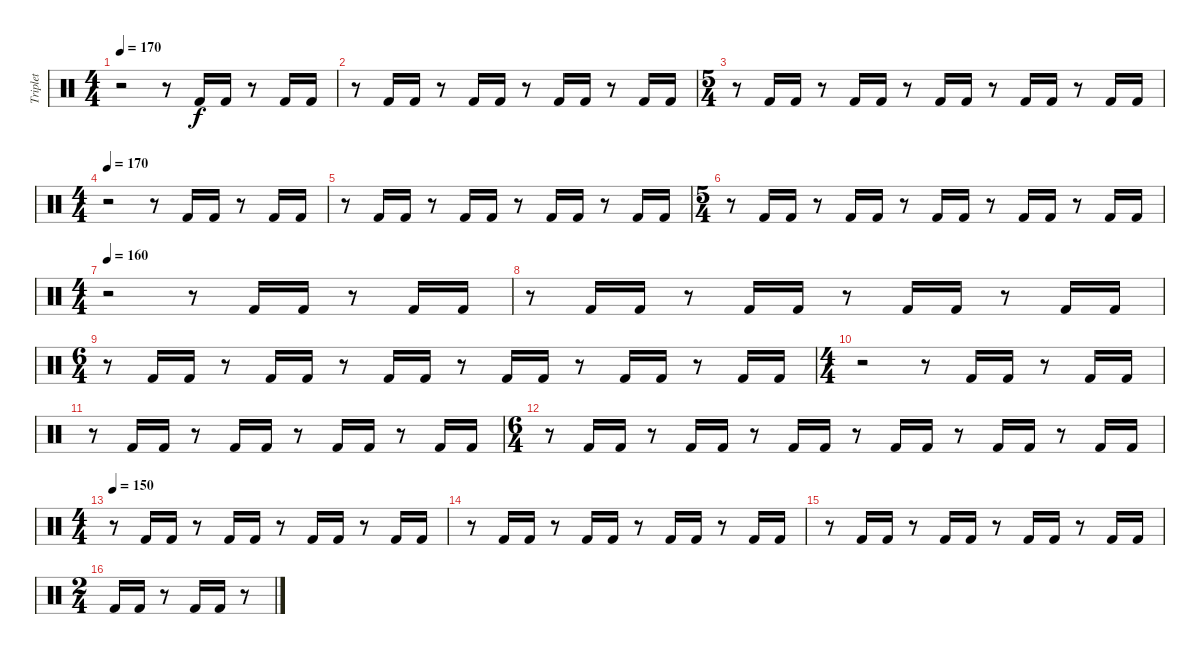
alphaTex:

\track ("Triplet" "Triplet") {instrument percussion}
\staff {score}
\articulation defaults
\ts (4 4)
\tempo 170
\clef neutral
\ks c
r.2{dy f} r.8 "Kick (hit) 2".16 "Kick (hit) 2".16 r.8 "Kick (hit) 2".16 "Kick (hit) 2".16 |
r.8 "Kick (hit) 2".16 "Kick (hit) 2".16 r.8 "Kick (hit) 2".16 "Kick (hit) 2".16 r.8 "Kick (hit) 2".16 "Kick (hit) 2".16 r.8 "Kick (hit) 2".16 "Kick (hit) 2".16 |
\ts (5 4)
r.8 "Kick (hit) 2".16 "Kick (hit) 2".16 r.8 "Kick (hit) 2".16 "Kick (hit) 2".16 r.8 "Kick (hit) 2".16 "Kick (hit) 2".16 r.8 "Kick (hit) 2".16 "Kick (hit) 2".16 r.8 "Kick (hit) 2".16 "Kick (hit) 2".16 |
\ts (4 4)
\tempo 170
r.2 r.8 "Kick (hit) 2".16 "Kick (hit) 2".16 r.8 "Kick (hit) 2".16 "Kick (hit) 2".16 |
r.8 "Kick (hit) 2".16 "Kick (hit) 2".16 r.8 "Kick (hit) 2".16 "Kick (hit) 2".16 r.8 "Kick (hit) 2".16 "Kick (hit) 2".16 r.8 "Kick (hit) 2".16 "Kick (hit) 2".16 |
\ts (5 4)
r.8 "Kick (hit) 2".16 "Kick (hit) 2".16 r.8 "Kick (hit) 2".16 "Kick (hit) 2".16 r.8 "Kick (hit) 2".16 "Kick (hit) 2".16 r.8 "Kick (hit) 2".16 "Kick (hit) 2".16 r.8 "Kick (hit) 2".16 "Kick (hit) 2".16 |
\ts (4 4)
\tempo 160
r.2 r.8 "Kick (hit) 2".16 "Kick (hit) 2".16 r.8 "Kick (hit) 2".16 "Kick (hit) 2".16 |
r.8 "Kick (hit) 2".16 "Kick (hit) 2".16 r.8 "Kick (hit) 2".16 "Kick (hit) 2".16 r.8 "Kick (hit) 2".16 "Kick (hit) 2".16 r.8 "Kick (hit) 2".16 "Kick (hit) 2".16 |
\ts (6 4)
r.8 "Kick (hit) 2".16 "Kick (hit) 2".16 r.8 "Kick (hit) 2".16 "Kick (hit) 2".16 r.8 "Kick (hit) 2".16 "Kick (hit) 2".16 r.8 "Kick (hit) 2".16 "Kick (hit) 2".16 r.8 "Kick (hit) 2".16 "Kick (hit) 2".16 r.8 "Kick (hit) 2".16 "Kick (hit) 2".16 |
\ts (4 4)
r.2 r.8 "Kick (hit) 2".16 "Kick (hit) 2".16 r.8 "Kick (hit) 2".16 "Kick (hit) 2".16 |
r.8 "Kick (hit) 2".16 "Kick (hit) 2".16 r.8 "Kick (hit) 2".16 "Kick (hit) 2".16 r.8 "Kick (hit) 2".16 "Kick (hit) 2".16 r.8 "Kick (hit) 2".16 "Kick (hit) 2".16 |
\ts (6 4)
r.8 "Kick (hit) 2".16 "Kick (hit) 2".16 r.8 "Kick (hit) 2".16 "Kick (hit) 2".16 r.8 "Kick (hit) 2".16 "Kick (hit) 2".16 r.8 "Kick (hit) 2".16 "Kick (hit) 2".16 r.8 "Kick (hit) 2".16 "Kick (hit) 2".16 r.8 "Kick (hit) 2".16 "Kick (hit) 2".16 |
\ts (4 4)
\tempo 150
r.8 "Kick (hit) 2".16 "Kick (hit) 2".16 r.8 "Kick (hit) 2".16 "Kick (hit) 2".16 r.8 "Kick (hit) 2".16 "Kick (hit) 2".16 r.8 "Kick (hit) 2".16 "Kick (hit) 2".16 |
r.8 "Kick (hit) 2".16 "Kick (hit) 2".16 r.8 "Kick (hit) 2".16 "Kick (hit) 2".16 r.8 "Kick (hit) 2".16 "Kick (hit) 2".16 r.8 "Kick (hit) 2".16 "Kick (hit) 2".16 |
r.8 "Kick (hit) 2".16 "Kick (hit) 2".16 r.8 "Kick (hit) 2".16 "Kick (hit) 2".16 r.8 "Kick (hit) 2".16 "Kick (hit) 2".16 r.8 "Kick (hit) 2".16 "Kick (hit) 2".16 |
\ts (2 4)
"Kick (hit) 2".16 "Kick (hit) 2".16 r.8 "Kick (hit) 2".16 "Kick (hit) 2".16 r.8
